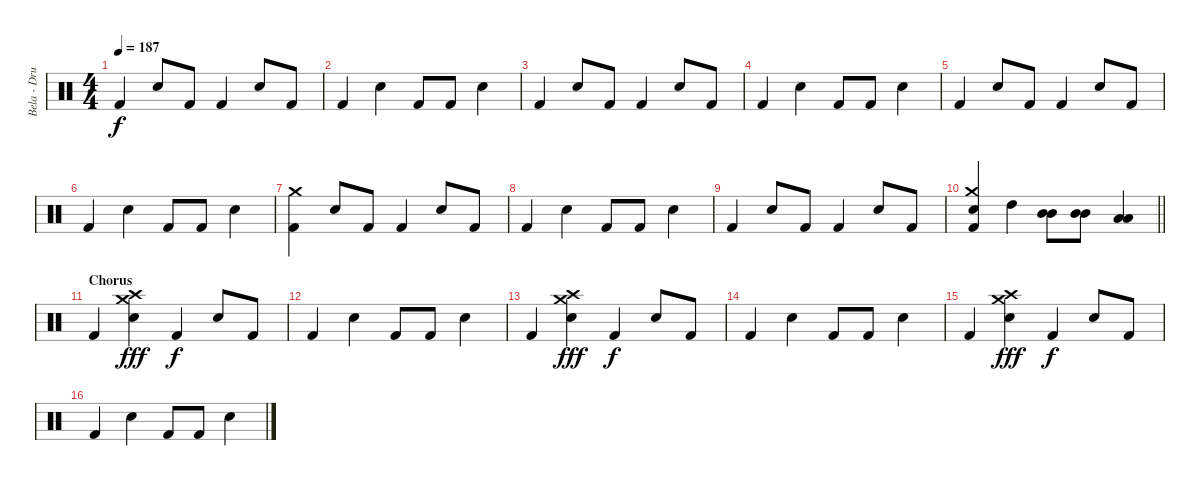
\track ("Bela - Drums" "Bela - Dru") {instrument percussion}
\staff {score}
\articulation defaults
\ts (4 4)
\tempo 187
\clef neutral
\ks c "Kick (hit) 2".4{dy f} "Snare (hit) 2".8 "Kick (hit) 2".8 "Kick (hit) 2".4 "Snare (hit) 2".8 "Kick (hit) 2".8
|
"Kick (hit) 2".4 "Snare (hit) 2".4 "Kick (hit) 2".8 "Kick (hit) 2".8 "Snare (hit) 2".4 |
"Kick (hit) 2".4 "Snare (hit) 2".8 "Kick (hit) 2".8 "Kick (hit) 2".4 "Snare (hit) 2".8 "Kick (hit) 2".8 |
"Kick (hit) 2".4 "Snare (hit) 2".4 "Kick (hit) 2".8 "Kick (hit) 2".8 "Snare (hit) 2".4 |
"Kick (hit) 2".4 "Snare (hit) 2".8 "Kick (hit) 2".8 "Kick (hit) 2".4 "Snare (hit) 2".8 "Kick (hit) 2".8 |
"Kick (hit) 2".4 "Snare (hit) 2".4 "Kick (hit) 2".8 "Kick (hit) 2".8 "Snare (hit) 2".4 |
("Crash medium (hit)" "Kick (hit) 2").4 "Snare (hit) 2".8 "Kick (hit) 2".8 "Kick (hit) 2".4 "Snare (hit) 2".8 "Kick (hit) 2".8 |
"Kick (hit) 2".4 "Snare (hit) 2".4 "Kick (hit) 2".8 "Kick (hit) 2".8 "Snare (hit) 2".4 |
"Kick (hit) 2".4 "Snare (hit) 2".8 "Kick (hit) 2".8 "Kick (hit) 2".4 "Snare (hit) 2".8 "Kick (hit) 2".8 |
\barLineRight lightlight
("Crash medium (hit)" "Electric Snare (hit)" "Kick (hit) 2").4 "High Tom (hit)".4 ("Mid Tom (hit)" "Mid Tom (hit)").8 ("Mid Tom (hit)" "Mid Tom (hit)").8 ("Low Tom (hit)" "Low Tom (hit)").4 |
\section ("" "Chorus")
"Kick (hit) 2".4 ("Crash medium (hit)" "Crash high (hit)" "Snare (hit) 2").4{dy fff} "Kick (hit) 2".4{dy f} "Snare (hit) 2".8 "Kick (hit) 2".8 |
"Kick (hit) 2".4 "Snare (hit) 2".4 "Kick (hit) 2".8 "Kick (hit) 2".8 "Snare (hit) 2".4 |
"Kick (hit) 2".4 ("Crash medium (hit)" "Crash high (hit)" "Snare (hit) 2").4{dy fff} "Kick (hit) 2".4{dy f} "Snare (hit) 2".8 "Kick (hit) 2".8 |
"Kick (hit) 2".4 "Snare (hit) 2".4 "Kick (hit) 2".8 "Kick (hit) 2".8 "Snare (hit) 2".4 |
"Kick (hit) 2".4 ("Crash medium (hit)" "Crash high (hit)" "Snare (hit) 2").4{dy fff} "Kick (hit) 2".4{dy f} "Snare (hit) 2".8 "Kick (hit) 2".8 |
"Kick (hit) 2".4 "Snare (hit) 2".4 "Kick (hit) 2".8 "Kick (hit) 2".8 "Snare (hit) 2".4
